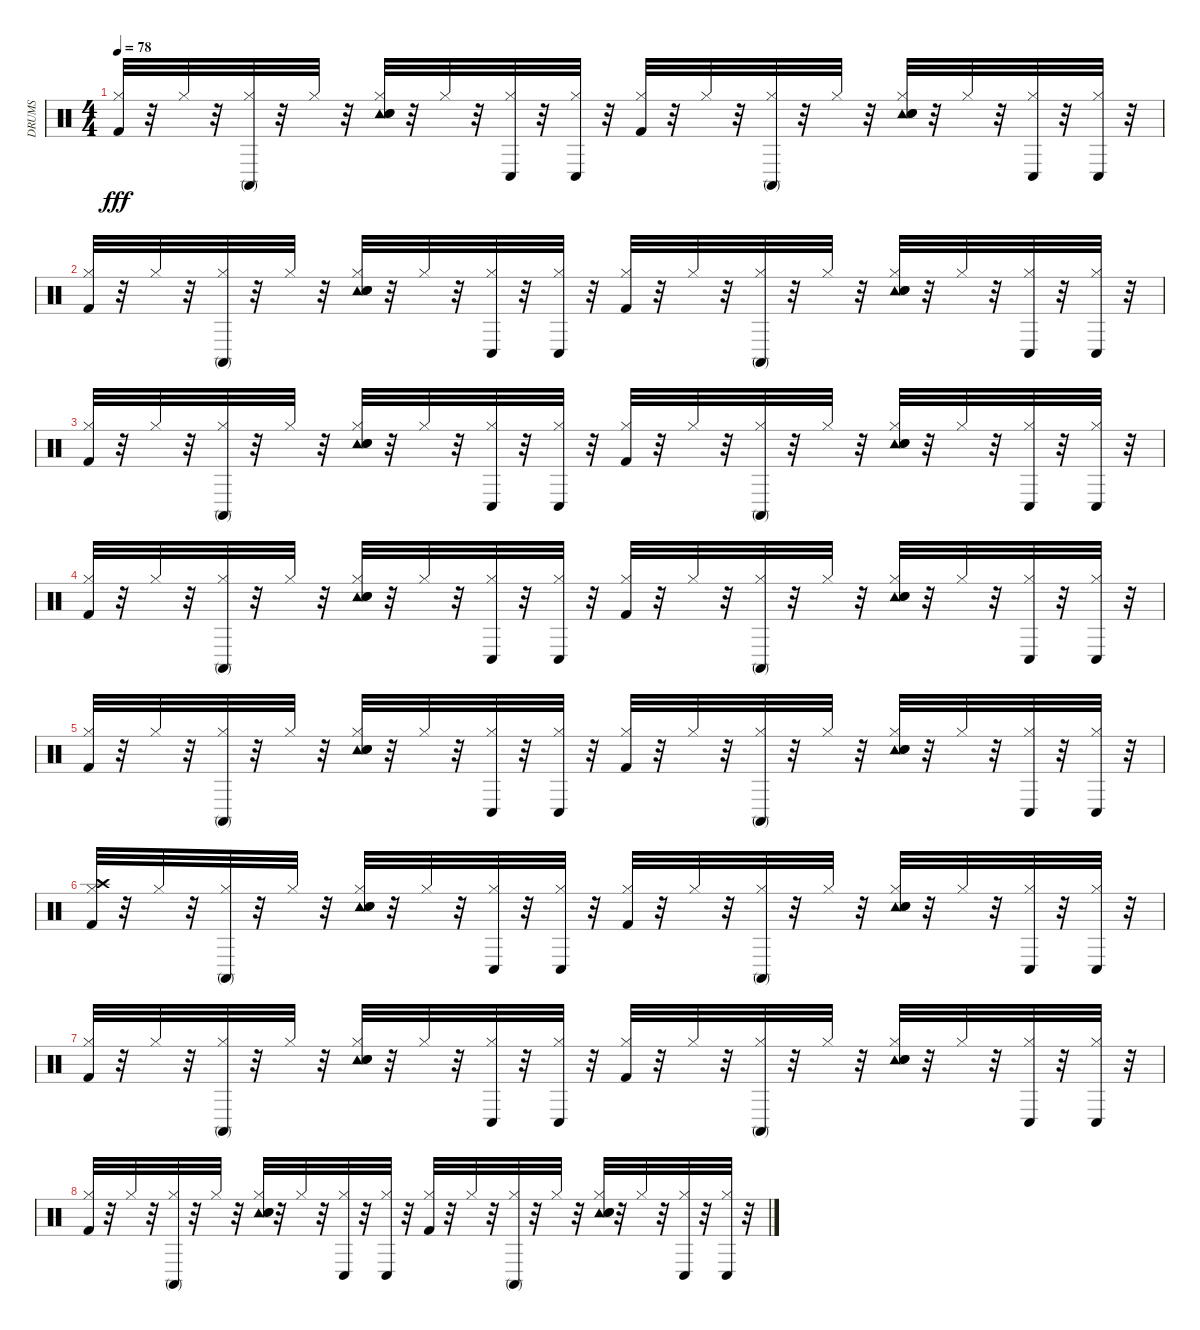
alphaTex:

\track ("DRUMS" "DRUMS") {instrument percussion}
\staff {score}
\articulation defaults
\ts (4 4)
\tempo 78
\clef neutral
\ks c
("Hi-Hat (closed)" "Kick (hit) 2").32{dy fff} r.32 "Hi-Hat (closed)".32 r.32 ("Conga high (mute)" "Hi-Hat (closed)").32 r.32 "Hi-Hat (closed)".32 r.32 ("Hi-Hat (closed)" "Tambourine (hit)" "Snare (hit)" "Snare (hit) 2").32 r.32 "Hi-Hat (closed)".32 r.32 ("Conga low (hit)" "Hi-Hat (closed)").32 r.32 ("Conga low (hit)" "Hi-Hat (closed)").32 r.32 ("Hi-Hat (closed)" "Kick (hit) 2").32 r.32 "Hi-Hat (closed)".32 r.32 ("Conga high (mute)" "Hi-Hat (closed)").32 r.32 "Hi-Hat (closed)".32 r.32 ("Hi-Hat (closed)" "Tambourine (hit)" "Snare (hit) 2" "Snare (hit)").32 r.32 "Hi-Hat (closed)".32 r.32 ("Conga low (hit)" "Hi-Hat (closed)").32 r.32 ("Conga low (hit)" "Hi-Hat (closed)").32 r.32 |
("Hi-Hat (closed)" "Kick (hit) 2").32 r.32 "Hi-Hat (closed)".32 r.32 ("Conga high (mute)" "Hi-Hat (closed)").32 r.32 "Hi-Hat (closed)".32 r.32 ("Hi-Hat (closed)" "Tambourine (hit)" "Snare (hit)" "Snare (hit) 2").32 r.32 "Hi-Hat (closed)".32 r.32 ("Conga low (hit)" "Hi-Hat (closed)").32 r.32 ("Conga low (hit)" "Hi-Hat (closed)").32 r.32 ("Hi-Hat (closed)" "Kick (hit) 2").32 r.32 "Hi-Hat (closed)".32 r.32 ("Conga high (mute)" "Hi-Hat (closed)").32 r.32 "Hi-Hat (closed)".32 r.32 ("Hi-Hat (closed)" "Tambourine (hit)" "Snare (hit) 2" "Snare (hit)").32 r.32 "Hi-Hat (closed)".32 r.32 ("Conga low (hit)" "Hi-Hat (closed)").32 r.32 ("Conga low (hit)" "Hi-Hat (closed)").32 r.32 |
("Hi-Hat (closed)" "Kick (hit) 2").32 r.32 "Hi-Hat (closed)".32 r.32 ("Conga high (mute)" "Hi-Hat (closed)").32 r.32 "Hi-Hat (closed)".32 r.32 ("Hi-Hat (closed)" "Tambourine (hit)" "Snare (hit)" "Snare (hit) 2").32 r.32 "Hi-Hat (closed)".32 r.32 ("Conga low (hit)" "Hi-Hat (closed)").32 r.32 ("Conga low (hit)" "Hi-Hat (closed)").32 r.32 ("Hi-Hat (closed)" "Kick (hit) 2").32 r.32 "Hi-Hat (closed)".32 r.32 ("Conga high (mute)" "Hi-Hat (closed)").32 r.32 "Hi-Hat (closed)".32 r.32 ("Hi-Hat (closed)" "Tambourine (hit)" "Snare (hit) 2" "Snare (hit)").32 r.32 "Hi-Hat (closed)".32 r.32 ("Conga low (hit)" "Hi-Hat (closed)").32 r.32 ("Conga low (hit)" "Hi-Hat (closed)").32 r.32 |
("Hi-Hat (closed)" "Kick (hit) 2").32 r.32 "Hi-Hat (closed)".32 r.32 ("Conga high (mute)" "Hi-Hat (closed)").32 r.32 "Hi-Hat (closed)".32 r.32 ("Hi-Hat (closed)" "Tambourine (hit)" "Snare (hit)" "Snare (hit) 2").32 r.32 "Hi-Hat (closed)".32 r.32 ("Conga low (hit)" "Hi-Hat (closed)").32 r.32 ("Conga low (hit)" "Hi-Hat (closed)").32 r.32 ("Hi-Hat (closed)" "Kick (hit) 2").32 r.32 "Hi-Hat (closed)".32 r.32 ("Conga high (mute)" "Hi-Hat (closed)").32 r.32 "Hi-Hat (closed)".32 r.32 ("Hi-Hat (closed)" "Tambourine (hit)" "Snare (hit) 2" "Snare (hit)").32 r.32 "Hi-Hat (closed)".32 r.32 ("Conga low (hit)" "Hi-Hat (closed)").32 r.32 ("Conga low (hit)" "Hi-Hat (closed)").32 r.32 |
("Hi-Hat (closed)" "Kick (hit) 2").32 r.32 "Hi-Hat (closed)".32 r.32 ("Conga high (mute)" "Hi-Hat (closed)").32 r.32 "Hi-Hat (closed)".32 r.32 ("Hi-Hat (closed)" "Tambourine (hit)" "Snare (hit)" "Snare (hit) 2").32 r.32 "Hi-Hat (closed)".32 r.32 ("Conga low (hit)" "Hi-Hat (closed)").32 r.32 ("Conga low (hit)" "Hi-Hat (closed)").32 r.32 ("Hi-Hat (closed)" "Kick (hit) 2").32 r.32 "Hi-Hat (closed)".32 r.32 ("Conga high (mute)" "Hi-Hat (closed)").32 r.32 "Hi-Hat (closed)".32 r.32 ("Hi-Hat (closed)" "Tambourine (hit)" "Snare (hit) 2" "Snare (hit)").32 r.32 "Hi-Hat (closed)".32 r.32 ("Conga low (hit)" "Hi-Hat (closed)").32 r.32 ("Conga low (hit)" "Hi-Hat (closed)").32 r.32 |
("Hi-Hat (closed)" "Kick (hit) 2" "Crash high (hit)").32 r.32 "Hi-Hat (closed)".32 r.32 ("Conga high (mute)" "Hi-Hat (closed)").32 r.32 "Hi-Hat (closed)".32 r.32 ("Hi-Hat (closed)" "Tambourine (hit)" "Snare (hit)" "Snare (hit) 2").32 r.32 "Hi-Hat (closed)".32 r.32 ("Conga low (hit)" "Hi-Hat (closed)").32 r.32 ("Conga low (hit)" "Hi-Hat (closed)").32 r.32 ("Hi-Hat (closed)" "Kick (hit) 2").32 r.32 "Hi-Hat (closed)".32 r.32 ("Conga high (mute)" "Hi-Hat (closed)").32 r.32 "Hi-Hat (closed)".32 r.32 ("Hi-Hat (closed)" "Tambourine (hit)" "Snare (hit) 2" "Snare (hit)").32 r.32 "Hi-Hat (closed)".32 r.32 ("Conga low (hit)" "Hi-Hat (closed)").32 r.32 ("Conga low (hit)" "Hi-Hat (closed)").32 r.32 |
("Hi-Hat (closed)" "Kick (hit) 2").32 r.32 "Hi-Hat (closed)".32 r.32 ("Conga high (mute)" "Hi-Hat (closed)").32 r.32 "Hi-Hat (closed)".32 r.32 ("Hi-Hat (closed)" "Tambourine (hit)" "Snare (hit)" "Snare (hit) 2").32 r.32 "Hi-Hat (closed)".32 r.32 ("Conga low (hit)" "Hi-Hat (closed)").32 r.32 ("Conga low (hit)" "Hi-Hat (closed)").32 r.32 ("Hi-Hat (closed)" "Kick (hit) 2").32 r.32 "Hi-Hat (closed)".32 r.32 ("Conga high (mute)" "Hi-Hat (closed)").32 r.32 "Hi-Hat (closed)".32 r.32 ("Hi-Hat (closed)" "Tambourine (hit)" "Snare (hit) 2" "Snare (hit)").32 r.32 "Hi-Hat (closed)".32 r.32 ("Conga low (hit)" "Hi-Hat (closed)").32 r.32 ("Conga low (hit)" "Hi-Hat (closed)").32 r.32 |
("Hi-Hat (closed)" "Kick (hit) 2").32 r.32 "Hi-Hat (closed)".32 r.32 ("Conga high (mute)" "Hi-Hat (closed)").32 r.32 "Hi-Hat (closed)".32 r.32 ("Hi-Hat (closed)" "Tambourine (hit)" "Snare (hit)" "Snare (hit) 2").32 r.32 "Hi-Hat (closed)".32 r.32 ("Conga low (hit)" "Hi-Hat (closed)").32 r.32 ("Conga low (hit)" "Hi-Hat (closed)").32 r.32 ("Hi-Hat (closed)" "Kick (hit) 2").32 r.32 "Hi-Hat (closed)".32 r.32 ("Conga high (mute)" "Hi-Hat (closed)").32 r.32 "Hi-Hat (closed)".32 r.32 ("Hi-Hat (closed)" "Tambourine (hit)" "Snare (hit) 2" "Snare (hit)").32 r.32 "Hi-Hat (closed)".32 r.32 ("Conga low (hit)" "Hi-Hat (closed)").32 r.32 ("Conga low (hit)" "Hi-Hat (closed)").32 r.32
